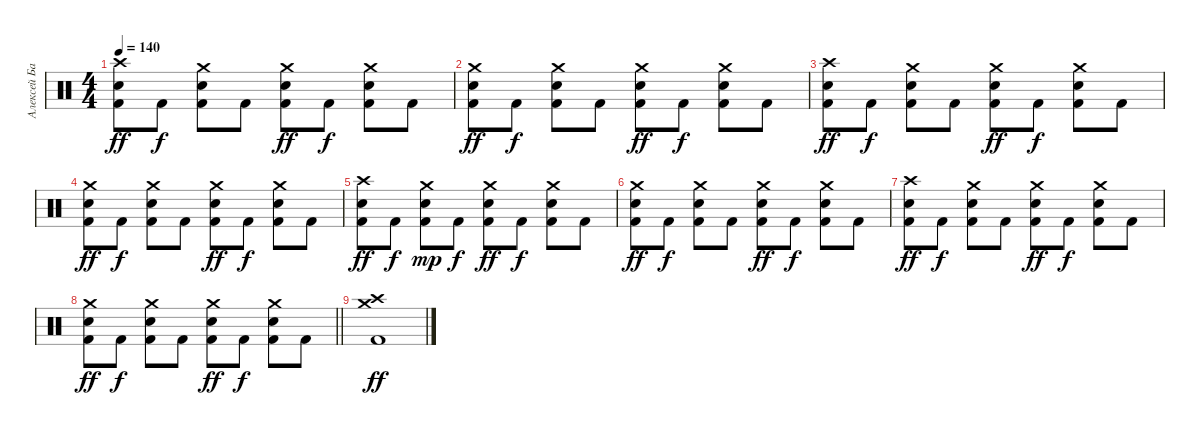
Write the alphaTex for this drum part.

\track ("Алексей Барзилович" "Алексей Ба") {instrument percussion}
\staff {score}
\articulation defaults
\ts (4 4)
\tempo 140
\clef neutral
\ks c
("Crash high (hit)" "Electric Snare (hit)" "Kick (hit) 2").8{dy ff} "Kick (hit) 2".8{dy f} ("Crash medium (hit)" "Electric Snare (hit)" "Kick (hit) 2").8 "Kick (hit) 2".8 ("Crash medium (hit)" "Electric Snare (hit)" "Kick (hit) 2").8{dy ff} "Kick (hit) 2".8{dy f} ("Crash medium (hit)" "Electric Snare (hit)" "Kick (hit) 2").8 "Kick (hit) 2".8 |
("Crash medium (hit)" "Electric Snare (hit)" "Kick (hit) 2").8{dy ff} "Kick (hit) 2".8{dy f} ("Crash medium (hit)" "Electric Snare (hit)" "Kick (hit) 2").8 "Kick (hit) 2".8 ("Crash medium (hit)" "Electric Snare (hit)" "Kick (hit) 2").8{dy ff} "Kick (hit) 2".8{dy f} ("Crash medium (hit)" "Electric Snare (hit)" "Kick (hit) 2").8 "Kick (hit) 2".8 |
("Crash high (hit)" "Electric Snare (hit)" "Kick (hit) 2").8{dy ff} "Kick (hit) 2".8{dy f} ("Crash medium (hit)" "Electric Snare (hit)" "Kick (hit) 2").8 "Kick (hit) 2".8 ("Crash medium (hit)" "Electric Snare (hit)" "Kick (hit) 2").8{dy ff} "Kick (hit) 2".8{dy f} ("Crash medium (hit)" "Electric Snare (hit)" "Kick (hit) 2").8 "Kick (hit) 2".8 |
("Crash medium (hit)" "Electric Snare (hit)" "Kick (hit) 2").8{dy ff} "Kick (hit) 2".8{dy f} ("Crash medium (hit)" "Electric Snare (hit)" "Kick (hit) 2").8 "Kick (hit) 2".8 ("Crash medium (hit)" "Electric Snare (hit)" "Kick (hit) 2").8{dy ff} "Kick (hit) 2".8{dy f} ("Crash medium (hit)" "Electric Snare (hit)" "Kick (hit) 2").8 "Kick (hit) 2".8 |
("Crash high (hit)" "Electric Snare (hit)" "Kick (hit) 2").8{dy ff} "Kick (hit) 2".8{dy f} ("Crash medium (hit)" "Electric Snare (hit)" "Kick (hit) 2").8{dy mp} "Kick (hit) 2".8{dy f} ("Crash medium (hit)" "Electric Snare (hit)" "Kick (hit) 2").8{dy ff} "Kick (hit) 2".8{dy f} ("Crash medium (hit)" "Electric Snare (hit)" "Kick (hit) 2").8 "Kick (hit) 2".8 |
("Crash medium (hit)" "Electric Snare (hit)" "Kick (hit) 2").8{dy ff} "Kick (hit) 2".8{dy f} ("Crash medium (hit)" "Electric Snare (hit)" "Kick (hit) 2").8 "Kick (hit) 2".8 ("Crash medium (hit)" "Electric Snare (hit)" "Kick (hit) 2").8{dy ff} "Kick (hit) 2".8{dy f} ("Crash medium (hit)" "Electric Snare (hit)" "Kick (hit) 2").8 "Kick (hit) 2".8 |
("Crash high (hit)" "Electric Snare (hit)" "Kick (hit) 2").8{dy ff} "Kick (hit) 2".8{dy f} ("Crash medium (hit)" "Electric Snare (hit)" "Kick (hit) 2").8 "Kick (hit) 2".8 ("Crash medium (hit)" "Electric Snare (hit)" "Kick (hit) 2").8{dy ff} "Kick (hit) 2".8{dy f} ("Crash medium (hit)" "Electric Snare (hit)" "Kick (hit) 2").8 "Kick (hit) 2".8 |
\barLineRight lightlight
("Crash medium (hit)" "Electric Snare (hit)" "Kick (hit) 2").8{dy ff} "Kick (hit) 2".8{dy f} ("Crash medium (hit)" "Electric Snare (hit)" "Kick (hit) 2").8 "Kick (hit) 2".8 ("Crash medium (hit)" "Electric Snare (hit)" "Kick (hit) 2").8{dy ff} "Kick (hit) 2".8{dy f} ("Crash medium (hit)" "Electric Snare (hit)" "Kick (hit) 2").8 "Kick (hit) 2".8 |
("Crash high (hit)" "Crash medium (hit)" "Kick (hit) 2").1{dy ff}
